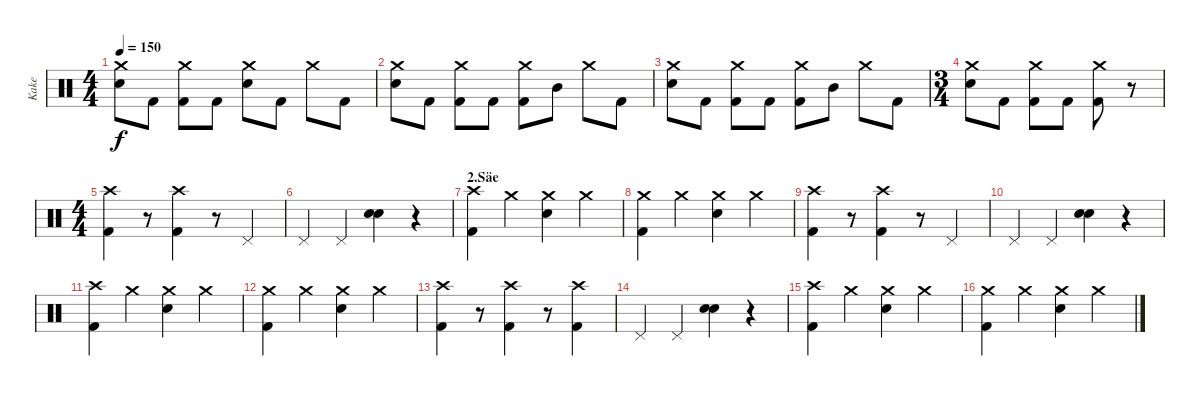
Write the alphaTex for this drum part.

\track ("Kake" "Kake") {instrument percussion}
\staff {score}
\articulation defaults
\ts (4 4)
\tempo 150
\clef neutral
\ks c
("Crash medium (hit)" "Electric Snare (hit)").8{dy f} "Kick (hit) 2".8 ("Crash medium (hit)" "Kick (hit) 2").8 "Kick (hit) 2".8 ("Crash medium (hit)" "Electric Snare (hit)").8 "Kick (hit) 2".8 "Crash medium (hit)".8 "Kick (hit) 2".8 |
("Crash medium (hit)" "Electric Snare (hit)").8 "Kick (hit) 2".8 ("Crash medium (hit)" "Kick (hit) 2").8 "Kick (hit) 2".8 ("Crash medium (hit)" "Kick (hit) 2").8 "Mid Tom (hit)".8 "Crash medium (hit)".8 "Kick (hit) 2".8 |
("Crash medium (hit)" "Electric Snare (hit)").8 "Kick (hit) 2".8 ("Crash medium (hit)" "Kick (hit) 2").8 "Kick (hit) 2".8 ("Crash medium (hit)" "Kick (hit) 2").8 "Mid Tom (hit)".8 "Crash medium (hit)".8 "Kick (hit) 2".8 |
\ts (3 4)
("Crash medium (hit)" "Electric Snare (hit)").8 "Kick (hit) 2".8 ("Crash medium (hit)" "Kick (hit) 2").8 "Kick (hit) 2".8 ("Crash medium (hit)" "Kick (hit) 2").8 r.8 |
\ts (4 4)
("Crash high (hit)" "Kick (hit) 2").4 r.8 ("Crash high (hit)" "Kick (hit) 2").4 r.8 "Pedal Hi-Hat (hit)".4 |
"Pedal Hi-Hat (hit)".4 "Pedal Hi-Hat (hit)".4 ("Electric Snare (hit)" "Electric Snare (hit)").4 r.4 |
\section ("" "2.Säe")
("Crash high (hit)" "Kick (hit) 2").4 "Crash medium (hit)".4 ("Crash medium (hit)" "Electric Snare (hit)").4 "Crash medium (hit)".4 |
("Crash medium (hit)" "Kick (hit) 2").4 "Crash medium (hit)".4 ("Crash medium (hit)" "Electric Snare (hit)").4 "Crash medium (hit)".4 |
("Crash high (hit)" "Kick (hit) 2").4 r.8 ("Crash high (hit)" "Kick (hit) 2").4 r.8 "Pedal Hi-Hat (hit)".4 |
"Pedal Hi-Hat (hit)".4 "Pedal Hi-Hat (hit)".4 ("Electric Snare (hit)" "Electric Snare (hit)").4 r.4 |
("Crash high (hit)" "Kick (hit) 2").4 "Crash medium (hit)".4 ("Crash medium (hit)" "Electric Snare (hit)").4 "Crash medium (hit)".4 |
("Crash medium (hit)" "Kick (hit) 2").4 "Crash medium (hit)".4 ("Crash medium (hit)" "Electric Snare (hit)").4 "Crash medium (hit)".4 |
("Crash high (hit)" "Kick (hit) 2").4 r.8 ("Crash high (hit)" "Kick (hit) 2").4 r.8 ("Crash high (hit)" "Kick (hit) 2").4 |
"Pedal Hi-Hat (hit)".4 "Pedal Hi-Hat (hit)".4 ("Electric Snare (hit)" "Electric Snare (hit)").4 r.4 |
("Crash high (hit)" "Kick (hit) 2").4 "Crash medium (hit)".4 ("Crash medium (hit)" "Electric Snare (hit)").4 "Crash medium (hit)".4 |
("Crash medium (hit)" "Kick (hit) 2").4 "Crash medium (hit)".4 ("Crash medium (hit)" "Electric Snare (hit)").4 "Crash medium (hit)".4
